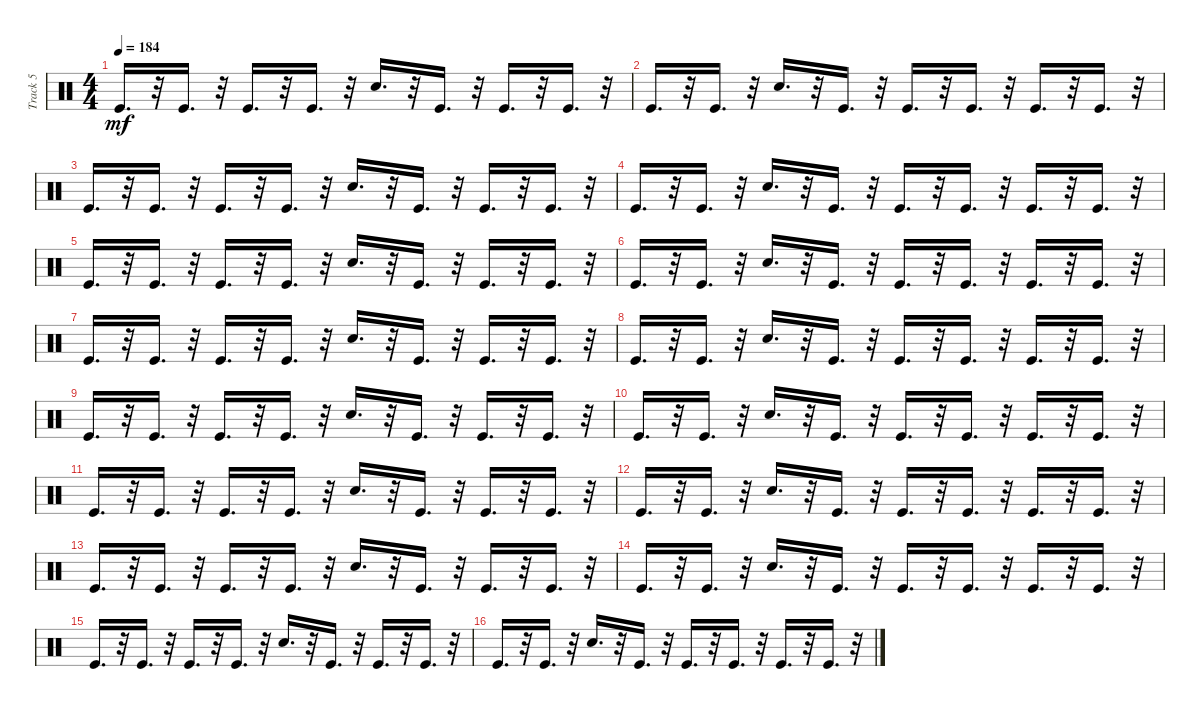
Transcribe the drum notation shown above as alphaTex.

\track ("Track 5" "Track 5") {instrument percussion}
\staff {score}
\articulation defaults
\ts (4 4)
\tempo 184
\clef neutral
\ks c "Kick (hit)".16{d dy mf}
r.32 "Kick (hit)".16{d} r.32 "Kick (hit)".16{d} r.32 "Kick (hit)".16{d} r.32 "Snare (hit) 2".16{d} r.32 "Kick (hit)".16{d} r.32 "Kick (hit)".16{d} r.32 "Kick (hit)".16{d} r.32 |
"Kick (hit)".16{d} r.32 "Kick (hit)".16{d} r.32 "Snare (hit) 2".16{d} r.32 "Kick (hit)".16{d} r.32 "Kick (hit)".16{d} r.32 "Kick (hit)".16{d} r.32 "Kick (hit)".16{d} r.32 "Kick (hit)".16{d} r.32 |
"Kick (hit)".16{d} r.32 "Kick (hit)".16{d} r.32 "Kick (hit)".16{d} r.32 "Kick (hit)".16{d} r.32 "Snare (hit) 2".16{d} r.32 "Kick (hit)".16{d} r.32 "Kick (hit)".16{d} r.32 "Kick (hit)".16{d} r.32 |
"Kick (hit)".16{d} r.32 "Kick (hit)".16{d} r.32 "Snare (hit) 2".16{d} r.32 "Kick (hit)".16{d} r.32 "Kick (hit)".16{d} r.32 "Kick (hit)".16{d} r.32 "Kick (hit)".16{d} r.32 "Kick (hit)".16{d} r.32 |
"Kick (hit)".16{d} r.32 "Kick (hit)".16{d} r.32 "Kick (hit)".16{d} r.32 "Kick (hit)".16{d} r.32 "Snare (hit) 2".16{d} r.32 "Kick (hit)".16{d} r.32 "Kick (hit)".16{d} r.32 "Kick (hit)".16{d} r.32 |
"Kick (hit)".16{d} r.32 "Kick (hit)".16{d} r.32 "Snare (hit) 2".16{d} r.32 "Kick (hit)".16{d} r.32 "Kick (hit)".16{d} r.32 "Kick (hit)".16{d} r.32 "Kick (hit)".16{d} r.32 "Kick (hit)".16{d} r.32 |
"Kick (hit)".16{d} r.32 "Kick (hit)".16{d} r.32 "Kick (hit)".16{d} r.32 "Kick (hit)".16{d} r.32 "Snare (hit) 2".16{d} r.32 "Kick (hit)".16{d} r.32 "Kick (hit)".16{d} r.32 "Kick (hit)".16{d} r.32 |
"Kick (hit)".16{d} r.32 "Kick (hit)".16{d} r.32 "Snare (hit) 2".16{d} r.32 "Kick (hit)".16{d} r.32 "Kick (hit)".16{d} r.32 "Kick (hit)".16{d} r.32 "Kick (hit)".16{d} r.32 "Kick (hit)".16{d} r.32 |
"Kick (hit)".16{d} r.32 "Kick (hit)".16{d} r.32 "Kick (hit)".16{d} r.32 "Kick (hit)".16{d} r.32 "Snare (hit) 2".16{d} r.32 "Kick (hit)".16{d} r.32 "Kick (hit)".16{d} r.32 "Kick (hit)".16{d} r.32 |
"Kick (hit)".16{d} r.32 "Kick (hit)".16{d} r.32 "Snare (hit) 2".16{d} r.32 "Kick (hit)".16{d} r.32 "Kick (hit)".16{d} r.32 "Kick (hit)".16{d} r.32 "Kick (hit)".16{d} r.32 "Kick (hit)".16{d} r.32 |
"Kick (hit)".16{d} r.32 "Kick (hit)".16{d} r.32 "Kick (hit)".16{d} r.32 "Kick (hit)".16{d} r.32 "Snare (hit) 2".16{d} r.32 "Kick (hit)".16{d} r.32 "Kick (hit)".16{d} r.32 "Kick (hit)".16{d} r.32 |
"Kick (hit)".16{d} r.32 "Kick (hit)".16{d} r.32 "Snare (hit) 2".16{d} r.32 "Kick (hit)".16{d} r.32 "Kick (hit)".16{d} r.32 "Kick (hit)".16{d} r.32 "Kick (hit)".16{d} r.32 "Kick (hit)".16{d} r.32 |
"Kick (hit)".16{d} r.32 "Kick (hit)".16{d} r.32 "Kick (hit)".16{d} r.32 "Kick (hit)".16{d} r.32 "Snare (hit) 2".16{d} r.32 "Kick (hit)".16{d} r.32 "Kick (hit)".16{d} r.32 "Kick (hit)".16{d} r.32 |
"Kick (hit)".16{d} r.32 "Kick (hit)".16{d} r.32 "Snare (hit) 2".16{d} r.32 "Kick (hit)".16{d} r.32 "Kick (hit)".16{d} r.32 "Kick (hit)".16{d} r.32 "Kick (hit)".16{d} r.32 "Kick (hit)".16{d} r.32 |
"Kick (hit)".16{d} r.32 "Kick (hit)".16{d} r.32 "Kick (hit)".16{d} r.32 "Kick (hit)".16{d} r.32 "Snare (hit) 2".16{d} r.32 "Kick (hit)".16{d} r.32 "Kick (hit)".16{d} r.32 "Kick (hit)".16{d} r.32 |
"Kick (hit)".16{d} r.32 "Kick (hit)".16{d} r.32 "Snare (hit) 2".16{d} r.32 "Kick (hit)".16{d} r.32 "Kick (hit)".16{d} r.32 "Kick (hit)".16{d} r.32 "Kick (hit)".16{d} r.32 "Kick (hit)".16{d} r.32
